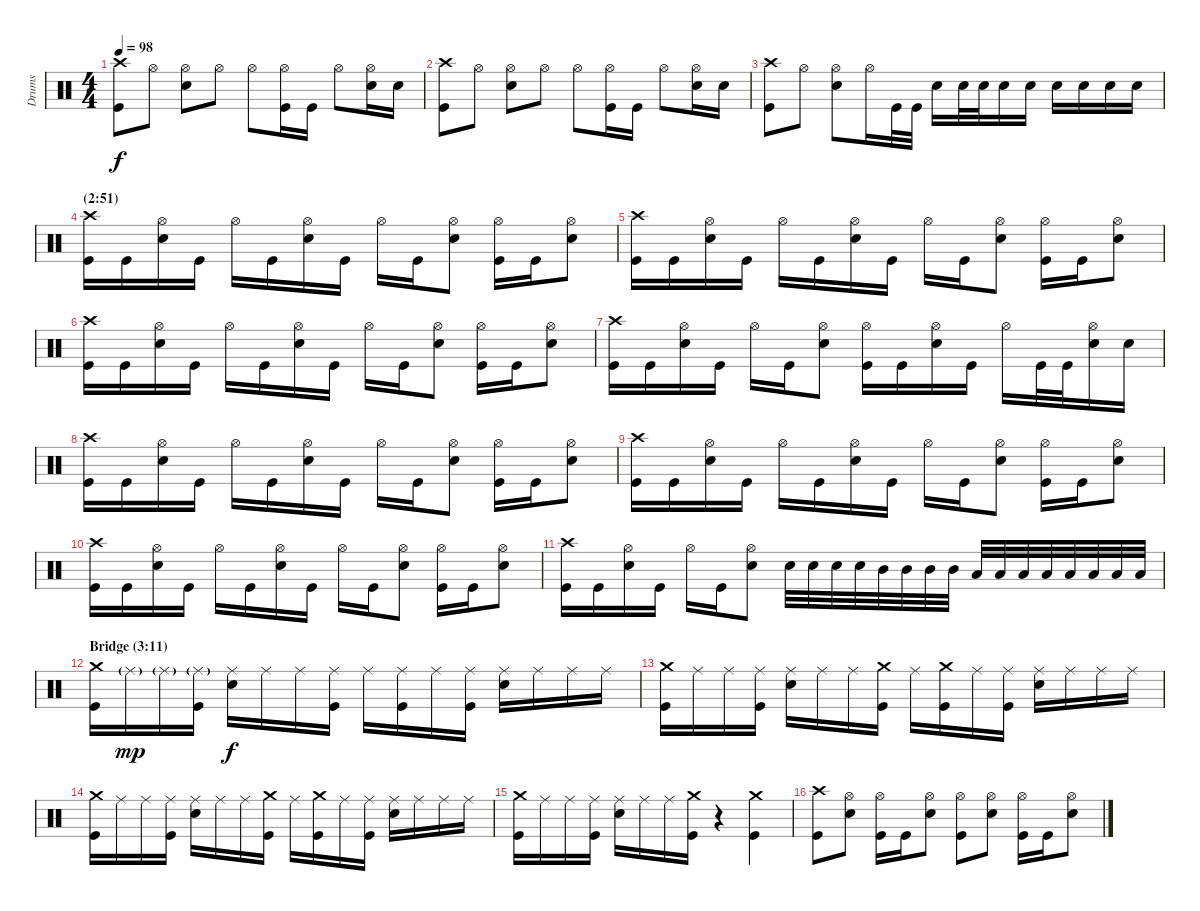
\track ("Drums" "Drums") {instrument percussion}
\staff {score}
\articulation defaults
\ts (4 4)
\tempo 98
\clef neutral
\ks c
("Crash high (hit)" "Kick (hit)").8{dy f} "Hi-Hat (open)".8 ("Hi-Hat (open)" "Snare (hit) 2").8 "Hi-Hat (open)".8 "Hi-Hat (open)".8 ("Hi-Hat (open)" "Kick (hit)").16 "Kick (hit)".16 "Hi-Hat (open)".8 ("Hi-Hat (open)" "Snare (hit) 2").16 "Snare (hit) 2".16 |
("Crash high (hit)" "Kick (hit)").8 "Hi-Hat (open)".8 ("Hi-Hat (open)" "Snare (hit) 2").8 "Hi-Hat (open)".8 "Hi-Hat (open)".8 ("Hi-Hat (open)" "Kick (hit)").16 "Kick (hit)".16 "Hi-Hat (open)".8 ("Hi-Hat (open)" "Snare (hit) 2").16 "Snare (hit) 2".16 |
("Crash high (hit)" "Kick (hit)").8 "Hi-Hat (open)".8 ("Hi-Hat (open)" "Snare (hit) 2").8 "Hi-Hat (open)".16 "Kick (hit)".32 "Kick (hit)".32 "Snare (hit) 2".16 "Snare (hit) 2".32 "Snare (hit) 2".32 "Snare (hit) 2".16 "Snare (hit) 2".16 "Snare (hit) 2".16 "Snare (hit) 2".16 "Snare (hit) 2".16 "Snare (hit) 2".16 |
\section ("" "(2:51)")
("Crash high (hit)" "Kick (hit)").16 "Kick (hit)".16 ("Hi-Hat (open)" "Snare (hit) 2").16 "Kick (hit)".16 "Hi-Hat (open)".16 "Kick (hit)".16 ("Hi-Hat (open)" "Snare (hit) 2").16 "Kick (hit)".16 "Hi-Hat (open)".16 "Kick (hit)".16 ("Hi-Hat (open)" "Snare (hit) 2").8 ("Hi-Hat (open)" "Kick (hit)").16 "Kick (hit)".16 ("Hi-Hat (open)" "Snare (hit) 2").8 |
("Crash high (hit)" "Kick (hit)").16 "Kick (hit)".16 ("Hi-Hat (open)" "Snare (hit) 2").16 "Kick (hit)".16 "Hi-Hat (open)".16 "Kick (hit)".16 ("Hi-Hat (open)" "Snare (hit) 2").16 "Kick (hit)".16 "Hi-Hat (open)".16 "Kick (hit)".16 ("Hi-Hat (open)" "Snare (hit) 2").8 ("Hi-Hat (open)" "Kick (hit)").16 "Kick (hit)".16 ("Hi-Hat (open)" "Snare (hit) 2").8 |
("Crash high (hit)" "Kick (hit)").16 "Kick (hit)".16 ("Hi-Hat (open)" "Snare (hit) 2").16 "Kick (hit)".16 "Hi-Hat (open)".16 "Kick (hit)".16 ("Hi-Hat (open)" "Snare (hit) 2").16 "Kick (hit)".16 "Hi-Hat (open)".16 "Kick (hit)".16 ("Hi-Hat (open)" "Snare (hit) 2").8 ("Hi-Hat (open)" "Kick (hit)").16 "Kick (hit)".16 ("Hi-Hat (open)" "Snare (hit) 2").8 |
("Crash high (hit)" "Kick (hit)").16 "Kick (hit)".16 ("Hi-Hat (open)" "Snare (hit) 2").16 "Kick (hit)".16 "Hi-Hat (open)".16 "Kick (hit)".16 ("Hi-Hat (open)" "Snare (hit) 2").8 ("Hi-Hat (open)" "Kick (hit)").16 "Kick (hit)".16 ("Hi-Hat (open)" "Snare (hit) 2").16 "Kick (hit)".16 "Hi-Hat (open)".16 "Kick (hit)".32 "Kick (hit)".32 ("Hi-Hat (open)" "Snare (hit) 2").16 "Snare (hit) 2".16 |
("Crash high (hit)" "Kick (hit)").16 "Kick (hit)".16 ("Hi-Hat (open)" "Snare (hit) 2").16 "Kick (hit)".16 "Hi-Hat (open)".16 "Kick (hit)".16 ("Hi-Hat (open)" "Snare (hit) 2").16 "Kick (hit)".16 "Hi-Hat (open)".16 "Kick (hit)".16 ("Hi-Hat (open)" "Snare (hit) 2").8 ("Hi-Hat (open)" "Kick (hit)").16 "Kick (hit)".16 ("Hi-Hat (open)" "Snare (hit) 2").8 |
("Crash high (hit)" "Kick (hit)").16 "Kick (hit)".16 ("Hi-Hat (open)" "Snare (hit) 2").16 "Kick (hit)".16 "Hi-Hat (open)".16 "Kick (hit)".16 ("Hi-Hat (open)" "Snare (hit) 2").16 "Kick (hit)".16 "Hi-Hat (open)".16 "Kick (hit)".16 ("Hi-Hat (open)" "Snare (hit) 2").8 ("Hi-Hat (open)" "Kick (hit)").16 "Kick (hit)".16 ("Hi-Hat (open)" "Snare (hit) 2").8 |
("Crash high (hit)" "Kick (hit)").16 "Kick (hit)".16 ("Hi-Hat (open)" "Snare (hit) 2").16 "Kick (hit)".16 "Hi-Hat (open)".16 "Kick (hit)".16 ("Hi-Hat (open)" "Snare (hit) 2").16 "Kick (hit)".16 "Hi-Hat (open)".16 "Kick (hit)".16 ("Hi-Hat (open)" "Snare (hit) 2").8 ("Hi-Hat (open)" "Kick (hit)").16 "Kick (hit)".16 ("Hi-Hat (open)" "Snare (hit) 2").8 |
("Crash high (hit)" "Kick (hit)").16 "Kick (hit)".16 ("Hi-Hat (open)" "Snare (hit) 2").16 "Kick (hit)".16 "Hi-Hat (open)".16 "Kick (hit)".16 ("Hi-Hat (open)" "Snare (hit) 2").8 "Snare (hit) 2".32 "Snare (hit) 2".32 "Snare (hit) 2".32 "Snare (hit) 2".32 "Mid Tom (hit)".32 "Mid Tom (hit)".32 "Mid Tom (hit)".32 "Mid Tom (hit)".32 "Low Tom (hit)".32 "Low Tom (hit)".32 "Low Tom (hit)".32 "Low Tom (hit)".32 "Low Floor Tom (hit)".32 "Low Floor Tom (hit)".32 "Low Floor Tom (hit)".32 "Low Floor Tom (hit)".32 |
\section ("" "Bridge (3:11)")
("Crash medium (hit)" "Kick (hit)").16 "Ride (middle)"{g}.16{dy mp} "Ride (middle)"{g}.16 ("Ride (middle)"{g} "Kick (hit)").16 ("Ride (middle)" "Snare (hit) 2").16{dy f} "Ride (middle)".16 "Ride (middle)".16 ("Ride (middle)" "Kick (hit)").16 "Ride (middle)".16 ("Ride (middle)" "Kick (hit)").16 "Ride (middle)".16 ("Ride (middle)" "Kick (hit)").16 ("Ride (middle)" "Snare (hit) 2").16 "Ride (middle)".16 "Ride (middle)".16 "Ride (middle)".16 |
("Crash medium (hit)" "Kick (hit)").16 "Ride (middle)".16 "Ride (middle)".16 ("Ride (middle)" "Kick (hit)").16 ("Ride (middle)" "Snare (hit) 2").16 "Ride (middle)".16 "Ride (middle)".16 ("Crash medium (hit)" "Kick (hit)").16 "Ride (middle)".16 ("Crash medium (hit)" "Kick (hit)").16 "Ride (middle)".16 ("Ride (middle)" "Kick (hit)").16 ("Ride (middle)" "Snare (hit) 2").16 "Ride (middle)".16 "Ride (middle)".16 "Ride (middle)".16 |
("Crash medium (hit)" "Kick (hit)").16 "Ride (middle)".16 "Ride (middle)".16 ("Ride (middle)" "Kick (hit)").16 ("Ride (middle)" "Snare (hit) 2").16 "Ride (middle)".16 "Ride (middle)".16 ("Crash medium (hit)" "Kick (hit)").16 "Ride (middle)".16 ("Crash medium (hit)" "Kick (hit)").16 "Ride (middle)".16 ("Ride (middle)" "Kick (hit)").16 ("Ride (middle)" "Snare (hit) 2").16 "Ride (middle)".16 "Ride (middle)".16 "Ride (middle)".16 |
("Crash medium (hit)" "Kick (hit)").16 "Ride (middle)".16 "Ride (middle)".16 ("Ride (middle)" "Kick (hit)").16 ("Ride (middle)" "Snare (hit) 2").16 "Ride (middle)".16 "Ride (middle)".16 ("Crash medium (hit)" "Kick (hit)").16 r.4 ("Crash medium (hit)" "Kick (hit)").4 |
("Crash high (hit)" "Kick (hit)").8 ("Hi-Hat (open)" "Snare (hit) 2").8 ("Hi-Hat (open)" "Kick (hit)").16 "Kick (hit)".16 ("Hi-Hat (open)" "Snare (hit) 2").8 ("Hi-Hat (open)" "Kick (hit)").8 ("Hi-Hat (open)" "Snare (hit) 2").8 ("Hi-Hat (open)" "Kick (hit)").16 "Kick (hit)".16 ("Hi-Hat (open)" "Snare (hit) 2").8
